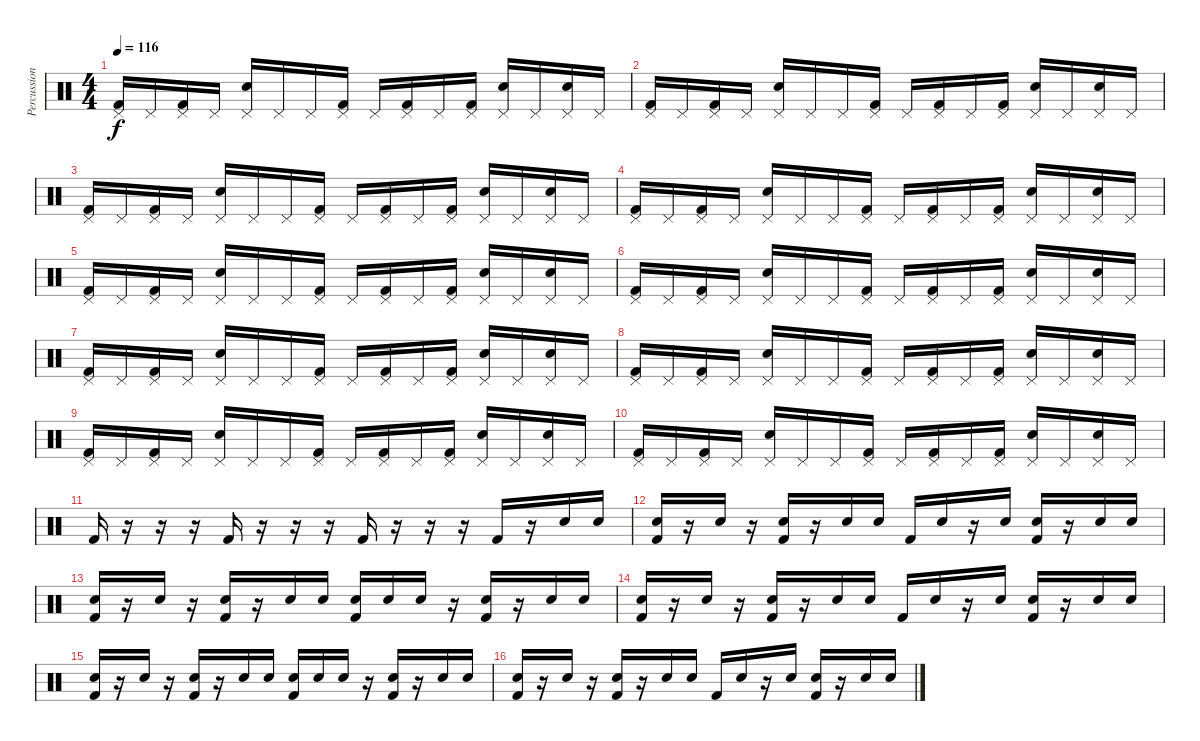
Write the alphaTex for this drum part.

\track ("Percussions" "Percussion") {instrument percussion}
\staff {score}
\articulation defaults
\ts (4 4)
\tempo 116
\clef neutral
\ks c
("Pedal Hi-Hat (hit)" "Kick (hit) 2").16{dy f} "Pedal Hi-Hat (hit)".16 ("Pedal Hi-Hat (hit)" "Kick (hit) 2").16 "Pedal Hi-Hat (hit)".16 ("Pedal Hi-Hat (hit)" "Snare (hit) 2").16 "Pedal Hi-Hat (hit)".16 "Pedal Hi-Hat (hit)".16 ("Pedal Hi-Hat (hit)" "Kick (hit) 2").16 "Pedal Hi-Hat (hit)".16 ("Pedal Hi-Hat (hit)" "Kick (hit) 2").16 "Pedal Hi-Hat (hit)".16 ("Pedal Hi-Hat (hit)" "Kick (hit) 2").16 ("Pedal Hi-Hat (hit)" "Snare (hit) 2").16 "Pedal Hi-Hat (hit)".16 ("Pedal Hi-Hat (hit)" "Snare (hit) 2").16 "Pedal Hi-Hat (hit)".16 |
("Pedal Hi-Hat (hit)" "Kick (hit) 2").16 "Pedal Hi-Hat (hit)".16 ("Pedal Hi-Hat (hit)" "Kick (hit) 2").16 "Pedal Hi-Hat (hit)".16 ("Pedal Hi-Hat (hit)" "Snare (hit) 2").16 "Pedal Hi-Hat (hit)".16 "Pedal Hi-Hat (hit)".16 ("Pedal Hi-Hat (hit)" "Kick (hit) 2").16 "Pedal Hi-Hat (hit)".16 ("Pedal Hi-Hat (hit)" "Kick (hit) 2").16 "Pedal Hi-Hat (hit)".16 ("Pedal Hi-Hat (hit)" "Kick (hit) 2").16 ("Pedal Hi-Hat (hit)" "Snare (hit) 2").16 "Pedal Hi-Hat (hit)".16 ("Pedal Hi-Hat (hit)" "Snare (hit) 2").16 "Pedal Hi-Hat (hit)".16 |
("Pedal Hi-Hat (hit)" "Kick (hit) 2").16 "Pedal Hi-Hat (hit)".16 ("Pedal Hi-Hat (hit)" "Kick (hit) 2").16 "Pedal Hi-Hat (hit)".16 ("Pedal Hi-Hat (hit)" "Snare (hit) 2").16 "Pedal Hi-Hat (hit)".16 "Pedal Hi-Hat (hit)".16 ("Pedal Hi-Hat (hit)" "Kick (hit) 2").16 "Pedal Hi-Hat (hit)".16 ("Pedal Hi-Hat (hit)" "Kick (hit) 2").16 "Pedal Hi-Hat (hit)".16 ("Pedal Hi-Hat (hit)" "Kick (hit) 2").16 ("Pedal Hi-Hat (hit)" "Snare (hit) 2").16 "Pedal Hi-Hat (hit)".16 ("Pedal Hi-Hat (hit)" "Snare (hit) 2").16 "Pedal Hi-Hat (hit)".16 |
("Pedal Hi-Hat (hit)" "Kick (hit) 2").16 "Pedal Hi-Hat (hit)".16 ("Pedal Hi-Hat (hit)" "Kick (hit) 2").16 "Pedal Hi-Hat (hit)".16 ("Pedal Hi-Hat (hit)" "Snare (hit) 2").16 "Pedal Hi-Hat (hit)".16 "Pedal Hi-Hat (hit)".16 ("Pedal Hi-Hat (hit)" "Kick (hit) 2").16 "Pedal Hi-Hat (hit)".16 ("Pedal Hi-Hat (hit)" "Kick (hit) 2").16 "Pedal Hi-Hat (hit)".16 ("Pedal Hi-Hat (hit)" "Kick (hit) 2").16 ("Pedal Hi-Hat (hit)" "Snare (hit) 2").16 "Pedal Hi-Hat (hit)".16 ("Pedal Hi-Hat (hit)" "Snare (hit) 2").16 "Pedal Hi-Hat (hit)".16 |
("Pedal Hi-Hat (hit)" "Kick (hit) 2").16 "Pedal Hi-Hat (hit)".16 ("Pedal Hi-Hat (hit)" "Kick (hit) 2").16 "Pedal Hi-Hat (hit)".16 ("Pedal Hi-Hat (hit)" "Snare (hit) 2").16 "Pedal Hi-Hat (hit)".16 "Pedal Hi-Hat (hit)".16 ("Pedal Hi-Hat (hit)" "Kick (hit) 2").16 "Pedal Hi-Hat (hit)".16 ("Pedal Hi-Hat (hit)" "Kick (hit) 2").16 "Pedal Hi-Hat (hit)".16 ("Pedal Hi-Hat (hit)" "Kick (hit) 2").16 ("Pedal Hi-Hat (hit)" "Snare (hit) 2").16 "Pedal Hi-Hat (hit)".16 ("Pedal Hi-Hat (hit)" "Snare (hit) 2").16 "Pedal Hi-Hat (hit)".16 |
("Pedal Hi-Hat (hit)" "Kick (hit) 2").16 "Pedal Hi-Hat (hit)".16 ("Pedal Hi-Hat (hit)" "Kick (hit) 2").16 "Pedal Hi-Hat (hit)".16 ("Pedal Hi-Hat (hit)" "Snare (hit) 2").16 "Pedal Hi-Hat (hit)".16 "Pedal Hi-Hat (hit)".16 ("Pedal Hi-Hat (hit)" "Kick (hit) 2").16 "Pedal Hi-Hat (hit)".16 ("Pedal Hi-Hat (hit)" "Kick (hit) 2").16 "Pedal Hi-Hat (hit)".16 ("Pedal Hi-Hat (hit)" "Kick (hit) 2").16 ("Pedal Hi-Hat (hit)" "Snare (hit) 2").16 "Pedal Hi-Hat (hit)".16 ("Pedal Hi-Hat (hit)" "Snare (hit) 2").16 "Pedal Hi-Hat (hit)".16 |
("Pedal Hi-Hat (hit)" "Kick (hit) 2").16 "Pedal Hi-Hat (hit)".16 ("Pedal Hi-Hat (hit)" "Kick (hit) 2").16 "Pedal Hi-Hat (hit)".16 ("Pedal Hi-Hat (hit)" "Snare (hit) 2").16 "Pedal Hi-Hat (hit)".16 "Pedal Hi-Hat (hit)".16 ("Pedal Hi-Hat (hit)" "Kick (hit) 2").16 "Pedal Hi-Hat (hit)".16 ("Pedal Hi-Hat (hit)" "Kick (hit) 2").16 "Pedal Hi-Hat (hit)".16 ("Pedal Hi-Hat (hit)" "Kick (hit) 2").16 ("Pedal Hi-Hat (hit)" "Snare (hit) 2").16 "Pedal Hi-Hat (hit)".16 ("Pedal Hi-Hat (hit)" "Snare (hit) 2").16 "Pedal Hi-Hat (hit)".16 |
("Pedal Hi-Hat (hit)" "Kick (hit) 2").16 "Pedal Hi-Hat (hit)".16 ("Pedal Hi-Hat (hit)" "Kick (hit) 2").16 "Pedal Hi-Hat (hit)".16 ("Pedal Hi-Hat (hit)" "Snare (hit) 2").16 "Pedal Hi-Hat (hit)".16 "Pedal Hi-Hat (hit)".16 ("Pedal Hi-Hat (hit)" "Kick (hit) 2").16 "Pedal Hi-Hat (hit)".16 ("Pedal Hi-Hat (hit)" "Kick (hit) 2").16 "Pedal Hi-Hat (hit)".16 ("Pedal Hi-Hat (hit)" "Kick (hit) 2").16 ("Pedal Hi-Hat (hit)" "Snare (hit) 2").16 "Pedal Hi-Hat (hit)".16 ("Pedal Hi-Hat (hit)" "Snare (hit) 2").16 "Pedal Hi-Hat (hit)".16 |
("Pedal Hi-Hat (hit)" "Kick (hit) 2").16 "Pedal Hi-Hat (hit)".16 ("Pedal Hi-Hat (hit)" "Kick (hit) 2").16 "Pedal Hi-Hat (hit)".16 ("Pedal Hi-Hat (hit)" "Snare (hit) 2").16 "Pedal Hi-Hat (hit)".16 "Pedal Hi-Hat (hit)".16 ("Pedal Hi-Hat (hit)" "Kick (hit) 2").16 "Pedal Hi-Hat (hit)".16 ("Pedal Hi-Hat (hit)" "Kick (hit) 2").16 "Pedal Hi-Hat (hit)".16 ("Pedal Hi-Hat (hit)" "Kick (hit) 2").16 ("Pedal Hi-Hat (hit)" "Snare (hit) 2").16 "Pedal Hi-Hat (hit)".16 ("Pedal Hi-Hat (hit)" "Snare (hit) 2").16 "Pedal Hi-Hat (hit)".16 |
("Pedal Hi-Hat (hit)" "Kick (hit) 2").16 "Pedal Hi-Hat (hit)".16 ("Pedal Hi-Hat (hit)" "Kick (hit) 2").16 "Pedal Hi-Hat (hit)".16 ("Pedal Hi-Hat (hit)" "Snare (hit) 2").16 "Pedal Hi-Hat (hit)".16 "Pedal Hi-Hat (hit)".16 ("Pedal Hi-Hat (hit)" "Kick (hit) 2").16 "Pedal Hi-Hat (hit)".16 ("Pedal Hi-Hat (hit)" "Kick (hit) 2").16 "Pedal Hi-Hat (hit)".16 ("Pedal Hi-Hat (hit)" "Kick (hit) 2").16 ("Pedal Hi-Hat (hit)" "Snare (hit) 2").16 "Pedal Hi-Hat (hit)".16 ("Pedal Hi-Hat (hit)" "Snare (hit) 2").16 "Pedal Hi-Hat (hit)".16 |
"Kick (hit) 2".16 r.16 r.16 r.16 "Kick (hit) 2".16 r.16 r.16 r.16 "Kick (hit) 2".16 r.16 r.16 r.16 "Kick (hit) 2".16 r.16 "Snare (hit) 2".16 "Snare (hit) 2".16 |
("Snare (hit) 2" "Kick (hit) 2").16 r.16 "Snare (hit) 2".16 r.16 ("Snare (hit) 2" "Kick (hit) 2").16 r.16 "Snare (hit) 2".16 "Snare (hit) 2".16 "Kick (hit) 2".16 "Snare (hit) 2".16 r.16 "Snare (hit) 2".16 ("Snare (hit) 2" "Kick (hit) 2").16 r.16 "Snare (hit) 2".16 "Snare (hit) 2".16 |
("Snare (hit) 2" "Kick (hit) 2").16 r.16 "Snare (hit) 2".16 r.16 ("Snare (hit) 2" "Kick (hit) 2").16 r.16 "Snare (hit) 2".16 "Snare (hit) 2".16 ("Snare (hit) 2" "Kick (hit) 2").16 "Snare (hit) 2".16 "Snare (hit) 2".16 r.16 ("Snare (hit) 2" "Kick (hit) 2").16 r.16 "Snare (hit) 2".16 "Snare (hit) 2".16 |
("Snare (hit) 2" "Kick (hit) 2").16 r.16 "Snare (hit) 2".16 r.16 ("Snare (hit) 2" "Kick (hit) 2").16 r.16 "Snare (hit) 2".16 "Snare (hit) 2".16 "Kick (hit) 2".16 "Snare (hit) 2".16 r.16 "Snare (hit) 2".16 ("Snare (hit) 2" "Kick (hit) 2").16 r.16 "Snare (hit) 2".16 "Snare (hit) 2".16 |
("Snare (hit) 2" "Kick (hit) 2").16 r.16 "Snare (hit) 2".16 r.16 ("Snare (hit) 2" "Kick (hit) 2").16 r.16 "Snare (hit) 2".16 "Snare (hit) 2".16 ("Snare (hit) 2" "Kick (hit) 2").16 "Snare (hit) 2".16 "Snare (hit) 2".16 r.16 ("Snare (hit) 2" "Kick (hit) 2").16 r.16 "Snare (hit) 2".16 "Snare (hit) 2".16 |
("Snare (hit) 2" "Kick (hit) 2").16 r.16 "Snare (hit) 2".16 r.16 ("Snare (hit) 2" "Kick (hit) 2").16 r.16 "Snare (hit) 2".16 "Snare (hit) 2".16 "Kick (hit) 2".16 "Snare (hit) 2".16 r.16 "Snare (hit) 2".16 ("Snare (hit) 2" "Kick (hit) 2").16 r.16 "Snare (hit) 2".16 "Snare (hit) 2".16
